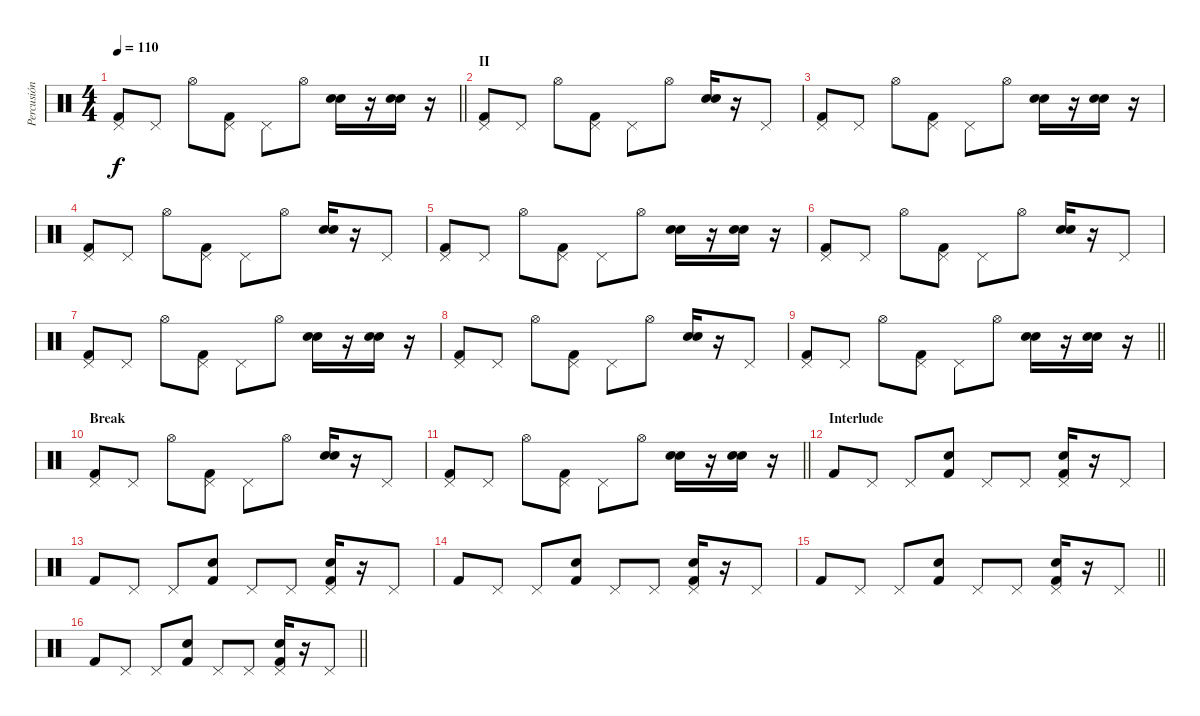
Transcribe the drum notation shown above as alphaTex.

\track ("Percusión" "Percusión") {instrument percussion}
\staff {score}
\articulation defaults
\ts (4 4)
\tempo 110
\clef neutral
\barLineRight lightlight
\ks c
("Pedal Hi-Hat (hit)" "Kick (hit) 2").8{dy f} "Pedal Hi-Hat (hit)".8 "Hi-Hat (open)".8 ("Pedal Hi-Hat (hit)" "Kick (hit) 2").8 "Pedal Hi-Hat (hit)".8 "Hi-Hat (open)".8 ("Hand Clap (hit)" "Electric Snare (hit)").16{bd 60} r.16 ("Hand Clap (hit)" "Electric Snare (hit)").16{bd 60} r.16 |
\section ("" "II")
("Pedal Hi-Hat (hit)" "Kick (hit) 2").8 "Pedal Hi-Hat (hit)".8 "Hi-Hat (open)".8 ("Pedal Hi-Hat (hit)" "Kick (hit) 2").8 "Pedal Hi-Hat (hit)".8 "Hi-Hat (open)".8 ("Hand Clap (hit)" "Electric Snare (hit)").16{bd 60} r.16 "Pedal Hi-Hat (hit)".8 |
("Pedal Hi-Hat (hit)" "Kick (hit) 2").8 "Pedal Hi-Hat (hit)".8 "Hi-Hat (open)".8 ("Pedal Hi-Hat (hit)" "Kick (hit) 2").8 "Pedal Hi-Hat (hit)".8 "Hi-Hat (open)".8 ("Hand Clap (hit)" "Electric Snare (hit)").16{bd 60} r.16 ("Hand Clap (hit)" "Electric Snare (hit)").16{bd 60} r.16 |
("Pedal Hi-Hat (hit)" "Kick (hit) 2").8 "Pedal Hi-Hat (hit)".8 "Hi-Hat (open)".8 ("Pedal Hi-Hat (hit)" "Kick (hit) 2").8 "Pedal Hi-Hat (hit)".8 "Hi-Hat (open)".8 ("Hand Clap (hit)" "Electric Snare (hit)").16{bd 60} r.16 "Pedal Hi-Hat (hit)".8 |
("Pedal Hi-Hat (hit)" "Kick (hit) 2").8 "Pedal Hi-Hat (hit)".8 "Hi-Hat (open)".8 ("Pedal Hi-Hat (hit)" "Kick (hit) 2").8 "Pedal Hi-Hat (hit)".8 "Hi-Hat (open)".8 ("Hand Clap (hit)" "Electric Snare (hit)").16{bd 60} r.16 ("Hand Clap (hit)" "Electric Snare (hit)").16{bd 60} r.16 |
("Pedal Hi-Hat (hit)" "Kick (hit) 2").8 "Pedal Hi-Hat (hit)".8 "Hi-Hat (open)".8 ("Pedal Hi-Hat (hit)" "Kick (hit) 2").8 "Pedal Hi-Hat (hit)".8 "Hi-Hat (open)".8 ("Hand Clap (hit)" "Electric Snare (hit)").16{bd 60} r.16 "Pedal Hi-Hat (hit)".8 |
("Pedal Hi-Hat (hit)" "Kick (hit) 2").8 "Pedal Hi-Hat (hit)".8 "Hi-Hat (open)".8 ("Pedal Hi-Hat (hit)" "Kick (hit) 2").8 "Pedal Hi-Hat (hit)".8 "Hi-Hat (open)".8 ("Hand Clap (hit)" "Electric Snare (hit)").16{bd 60} r.16 ("Hand Clap (hit)" "Electric Snare (hit)").16{bd 60} r.16 |
("Pedal Hi-Hat (hit)" "Kick (hit) 2").8 "Pedal Hi-Hat (hit)".8 "Hi-Hat (open)".8 ("Pedal Hi-Hat (hit)" "Kick (hit) 2").8 "Pedal Hi-Hat (hit)".8 "Hi-Hat (open)".8 ("Hand Clap (hit)" "Electric Snare (hit)").16{bd 60} r.16 "Pedal Hi-Hat (hit)".8 |
\barLineRight lightlight
("Pedal Hi-Hat (hit)" "Kick (hit) 2").8 "Pedal Hi-Hat (hit)".8 "Hi-Hat (open)".8 ("Pedal Hi-Hat (hit)" "Kick (hit) 2").8 "Pedal Hi-Hat (hit)".8 "Hi-Hat (open)".8 ("Hand Clap (hit)" "Electric Snare (hit)").16{bd 60} r.16 ("Hand Clap (hit)" "Electric Snare (hit)").16{bd 60} r.16 |
\section ("" "Break")
("Pedal Hi-Hat (hit)" "Kick (hit) 2").8 "Pedal Hi-Hat (hit)".8 "Hi-Hat (open)".8 ("Pedal Hi-Hat (hit)" "Kick (hit) 2").8 "Pedal Hi-Hat (hit)".8 "Hi-Hat (open)".8 ("Hand Clap (hit)" "Electric Snare (hit)").16{bd 60} r.16 "Pedal Hi-Hat (hit)".8 |
\barLineRight lightlight
("Pedal Hi-Hat (hit)" "Kick (hit) 2").8 "Pedal Hi-Hat (hit)".8 "Hi-Hat (open)".8 ("Pedal Hi-Hat (hit)" "Kick (hit) 2").8 "Pedal Hi-Hat (hit)".8 "Hi-Hat (open)".8 ("Hand Clap (hit)" "Electric Snare (hit)").16{bd 60} r.16 ("Hand Clap (hit)" "Electric Snare (hit)").16{bd 60} r.16 |
\section ("" "Interlude")
"Kick (hit) 2".8 "Pedal Hi-Hat (hit)".8 "Pedal Hi-Hat (hit)".8 ("Electric Snare (hit)" "Kick (hit) 2").8 "Pedal Hi-Hat (hit)".8 "Pedal Hi-Hat (hit)".8 ("Hand Clap (hit)" "Pedal Hi-Hat (hit)" "Kick (hit) 2").16{bd 60} r.16 "Pedal Hi-Hat (hit)".8 |
"Kick (hit) 2".8 "Pedal Hi-Hat (hit)".8 "Pedal Hi-Hat (hit)".8 ("Electric Snare (hit)" "Kick (hit) 2").8 "Pedal Hi-Hat (hit)".8 "Pedal Hi-Hat (hit)".8 ("Hand Clap (hit)" "Pedal Hi-Hat (hit)" "Kick (hit) 2").16{bd 60} r.16 "Pedal Hi-Hat (hit)".8 |
"Kick (hit) 2".8 "Pedal Hi-Hat (hit)".8 "Pedal Hi-Hat (hit)".8 ("Electric Snare (hit)" "Kick (hit) 2").8 "Pedal Hi-Hat (hit)".8 "Pedal Hi-Hat (hit)".8 ("Hand Clap (hit)" "Pedal Hi-Hat (hit)" "Kick (hit) 2").16{bd 60} r.16 "Pedal Hi-Hat (hit)".8 |
\barLineRight lightlight "Kick (hit) 2".8 "Pedal Hi-Hat (hit)".8 "Pedal Hi-Hat (hit)".8
("Electric Snare (hit)" "Kick (hit) 2").8 "Pedal Hi-Hat (hit)".8 "Pedal Hi-Hat (hit)".8 ("Hand Clap (hit)" "Pedal Hi-Hat (hit)" "Kick (hit) 2").16{bd 60} r.16 "Pedal Hi-Hat (hit)".8 |
\barLineRight lightlight "Kick (hit) 2".8 "Pedal Hi-Hat (hit)".8 "Pedal Hi-Hat (hit)".8
("Electric Snare (hit)" "Kick (hit) 2").8 "Pedal Hi-Hat (hit)".8 "Pedal Hi-Hat (hit)".8 ("Hand Clap (hit)" "Pedal Hi-Hat (hit)" "Kick (hit) 2").16{bd 60} r.16 "Pedal Hi-Hat (hit)".8
